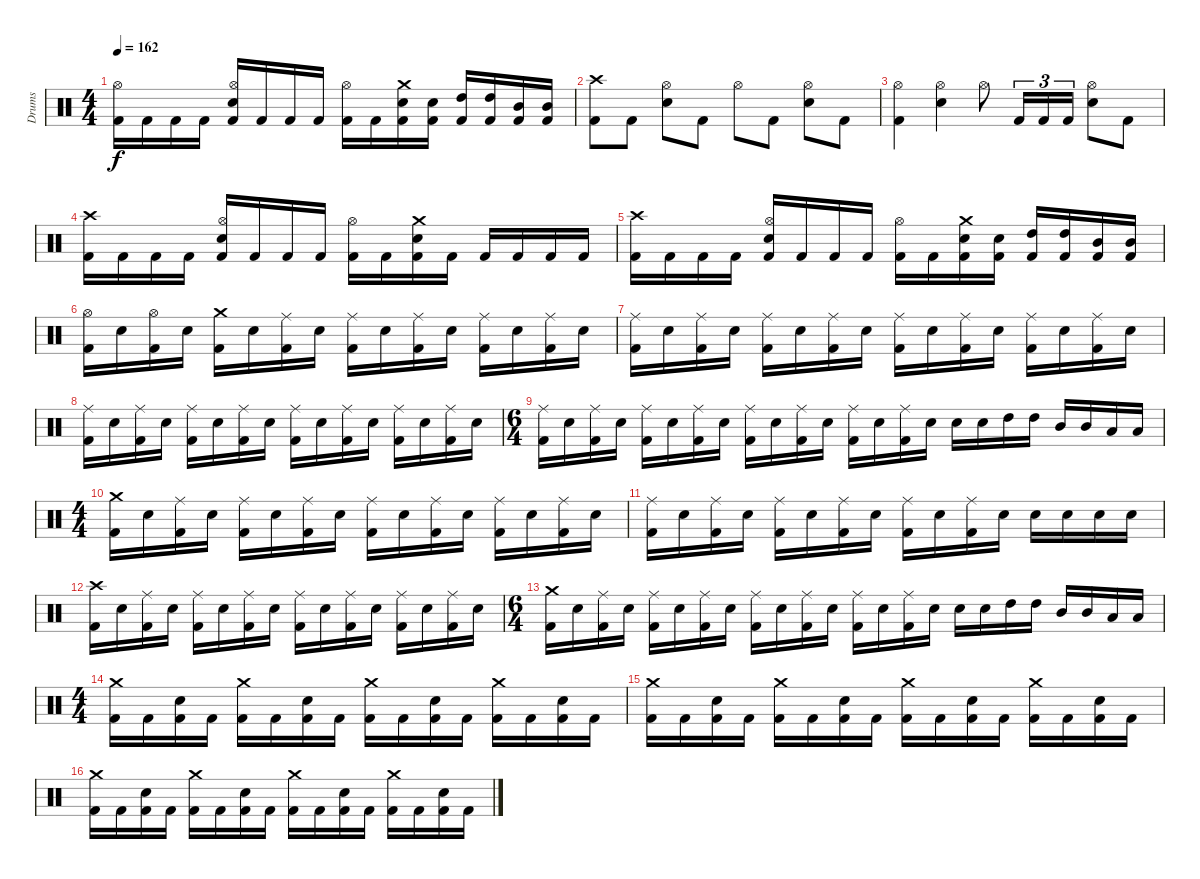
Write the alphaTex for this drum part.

\track ("Drums" "Drums") {instrument percussion}
\staff {score}
\articulation defaults
\ts (4 4)
\tempo 162
\clef neutral
\ks c
("Kick (hit) 2" "Hi-Hat (open)").16{dy f} "Kick (hit) 2".16 "Kick (hit) 2".16 "Kick (hit) 2".16 ("Kick (hit) 2" "Electric Snare (hit)" "Hi-Hat (open)").16 "Kick (hit) 2".16 "Kick (hit) 2".16 "Kick (hit) 2".16 ("Kick (hit) 2" "Hi-Hat (open)").16 "Kick (hit) 2".16 ("Kick (hit) 2" "Electric Snare (hit)" "Crash medium (hit)").16 ("Kick (hit) 2" "Electric Snare (hit)").16 ("Kick (hit) 2" "High Tom (hit)").16 ("Kick (hit) 2" "High Tom (hit)").16 ("Kick (hit) 2" "Mid Tom (hit)").16 ("Kick (hit) 2" "Mid Tom (hit)").16 |
("Kick (hit) 2" "Crash high (hit)").8 "Kick (hit) 2".8 ("Electric Snare (hit)" "Hi-Hat (open)").8 "Kick (hit) 2".8 "Hi-Hat (open)".8 "Kick (hit) 2".8 ("Electric Snare (hit)" "Hi-Hat (open)").8 "Kick (hit) 2".8 |
("Kick (hit) 2" "Hi-Hat (open)").4 ("Electric Snare (hit)" "Hi-Hat (open)").4 "Hi-Hat (open)".8 "Kick (hit) 2".16{tu (3 2)} "Kick (hit) 2".16{tu (3 2)} "Kick (hit) 2".16{tu (3 2)} ("Electric Snare (hit)" "Hi-Hat (open)").8 "Kick (hit) 2".8 |
("Kick (hit) 2" "Crash high (hit)").16 "Kick (hit) 2".16 "Kick (hit) 2".16 "Kick (hit) 2".16 ("Kick (hit) 2" "Electric Snare (hit)" "Hi-Hat (open)").16 "Kick (hit) 2".16 "Kick (hit) 2".16 "Kick (hit) 2".16 ("Kick (hit) 2" "Hi-Hat (open)").16 "Kick (hit) 2".16 ("Kick (hit) 2" "Electric Snare (hit)" "Crash medium (hit)").16 "Kick (hit) 2".16 "Kick (hit) 2".16 "Kick (hit) 2".16 "Kick (hit) 2".16 "Kick (hit) 2".16 |
("Kick (hit) 2" "Crash high (hit)").16 "Kick (hit) 2".16 "Kick (hit) 2".16 "Kick (hit) 2".16 ("Kick (hit) 2" "Electric Snare (hit)" "Hi-Hat (open)").16 "Kick (hit) 2".16 "Kick (hit) 2".16 "Kick (hit) 2".16 ("Kick (hit) 2" "Hi-Hat (open)").16 "Kick (hit) 2".16 ("Kick (hit) 2" "Electric Snare (hit)" "Crash medium (hit)").16 ("Kick (hit) 2" "Electric Snare (hit)").16 ("Kick (hit) 2" "High Tom (hit)").16 ("Kick (hit) 2" "High Tom (hit)").16 ("Kick (hit) 2" "Mid Tom (hit)").16 ("Kick (hit) 2" "Mid Tom (hit)").16 |
("Kick (hit) 2" "Hi-Hat (open)").16 "Electric Snare (hit)".16 ("Kick (hit) 2" "Hi-Hat (open)").16 "Electric Snare (hit)".16 ("Kick (hit) 2" "Crash medium (hit)").16 "Electric Snare (hit)".16 ("Kick (hit) 2" "Ride (middle)").16 "Electric Snare (hit)".16 ("Kick (hit) 2" "Ride (middle)").16 "Electric Snare (hit)".16 ("Kick (hit) 2" "Ride (middle)").16 "Electric Snare (hit)".16 ("Kick (hit) 2" "Ride (middle)").16 "Electric Snare (hit)".16 ("Kick (hit) 2" "Ride (middle)").16 "Electric Snare (hit)".16 |
("Kick (hit) 2" "Ride (middle)").16 "Electric Snare (hit)".16 ("Kick (hit) 2" "Ride (middle)").16 "Electric Snare (hit)".16 ("Kick (hit) 2" "Ride (middle)").16 "Electric Snare (hit)".16 ("Kick (hit) 2" "Ride (middle)").16 "Electric Snare (hit)".16 ("Kick (hit) 2" "Ride (middle)").16 "Electric Snare (hit)".16 ("Kick (hit) 2" "Ride (middle)").16 "Electric Snare (hit)".16 ("Kick (hit) 2" "Ride (middle)").16 "Electric Snare (hit)".16 ("Kick (hit) 2" "Ride (middle)").16 "Electric Snare (hit)".16 |
("Kick (hit) 2" "Ride (middle)").16 "Electric Snare (hit)".16 ("Kick (hit) 2" "Ride (middle)").16 "Electric Snare (hit)".16 ("Kick (hit) 2" "Ride (middle)").16 "Electric Snare (hit)".16 ("Kick (hit) 2" "Ride (middle)").16 "Electric Snare (hit)".16 ("Kick (hit) 2" "Ride (middle)").16 "Electric Snare (hit)".16 ("Kick (hit) 2" "Ride (middle)").16 "Electric Snare (hit)".16 ("Kick (hit) 2" "Ride (middle)").16 "Electric Snare (hit)".16 ("Kick (hit) 2" "Ride (middle)").16 "Electric Snare (hit)".16 |
\ts (6 4)
("Kick (hit) 2" "Ride (middle)").16 "Electric Snare (hit)".16 ("Kick (hit) 2" "Ride (middle)").16 "Electric Snare (hit)".16 ("Kick (hit) 2" "Ride (middle)").16 "Electric Snare (hit)".16 ("Kick (hit) 2" "Ride (middle)").16 "Electric Snare (hit)".16 ("Kick (hit) 2" "Ride (middle)").16 "Electric Snare (hit)".16 ("Kick (hit) 2" "Ride (middle)").16 "Electric Snare (hit)".16 ("Kick (hit) 2" "Ride (middle)").16 "Electric Snare (hit)".16 ("Kick (hit) 2" "Ride (middle)").16 "Electric Snare (hit)".16 "Electric Snare (hit)".16 "Electric Snare (hit)".16 "High Tom (hit)".16 "High Tom (hit)".16 "Mid Tom (hit)".16 "Mid Tom (hit)".16 "Low Tom (hit)".16 "Low Tom (hit)".16 |
\ts (4 4)
("Kick (hit) 2" "Crash medium (hit)").16 "Electric Snare (hit)".16 ("Kick (hit) 2" "Ride (middle)").16 "Electric Snare (hit)".16 ("Kick (hit) 2" "Ride (middle)").16 "Electric Snare (hit)".16 ("Kick (hit) 2" "Ride (middle)").16 "Electric Snare (hit)".16 ("Kick (hit) 2" "Ride (middle)").16 "Electric Snare (hit)".16 ("Kick (hit) 2" "Ride (middle)").16 "Electric Snare (hit)".16 ("Kick (hit) 2" "Ride (middle)").16 "Electric Snare (hit)".16 ("Kick (hit) 2" "Ride (middle)").16 "Electric Snare (hit)".16 |
("Kick (hit) 2" "Ride (middle)").16 "Electric Snare (hit)".16 ("Kick (hit) 2" "Ride (middle)").16 "Electric Snare (hit)".16 ("Kick (hit) 2" "Ride (middle)").16 "Electric Snare (hit)".16 ("Kick (hit) 2" "Ride (middle)").16 "Electric Snare (hit)".16 ("Kick (hit) 2" "Ride (middle)").16 "Electric Snare (hit)".16 ("Kick (hit) 2" "Ride (middle)").16 "Electric Snare (hit)".16 "Electric Snare (hit)".16 "Electric Snare (hit)".16 "Electric Snare (hit)".16 "Electric Snare (hit)".16 |
("Kick (hit) 2" "Crash high (hit)").16 "Electric Snare (hit)".16 ("Kick (hit) 2" "Ride (middle)").16 "Electric Snare (hit)".16 ("Kick (hit) 2" "Ride (middle)").16 "Electric Snare (hit)".16 ("Kick (hit) 2" "Ride (middle)").16 "Electric Snare (hit)".16 ("Kick (hit) 2" "Ride (middle)").16 "Electric Snare (hit)".16 ("Kick (hit) 2" "Ride (middle)").16 "Electric Snare (hit)".16 ("Kick (hit) 2" "Ride (middle)").16 "Electric Snare (hit)".16 ("Kick (hit) 2" "Ride (middle)").16 "Electric Snare (hit)".16 |
\ts (6 4)
("Kick (hit) 2" "Crash medium (hit)").16 "Electric Snare (hit)".16 ("Kick (hit) 2" "Ride (middle)").16 "Electric Snare (hit)".16 ("Kick (hit) 2" "Ride (middle)").16 "Electric Snare (hit)".16 ("Kick (hit) 2" "Ride (middle)").16 "Electric Snare (hit)".16 ("Kick (hit) 2" "Ride (middle)").16 "Electric Snare (hit)".16 ("Kick (hit) 2" "Ride (middle)").16 "Electric Snare (hit)".16 ("Kick (hit) 2" "Ride (middle)").16 "Electric Snare (hit)".16 ("Kick (hit) 2" "Ride (middle)").16 "Electric Snare (hit)".16 "Electric Snare (hit)".16 "Electric Snare (hit)".16 "High Tom (hit)".16 "High Tom (hit)".16 "Mid Tom (hit)".16 "Mid Tom (hit)".16 "Low Tom (hit)".16 "Low Tom (hit)".16 |
\ts (4 4)
("Kick (hit) 2" "Crash medium (hit)").16 "Kick (hit) 2".16 ("Kick (hit) 2" "Electric Snare (hit)").16 "Kick (hit) 2".16 ("Kick (hit) 2" "Crash medium (hit)").16 "Kick (hit) 2".16 ("Kick (hit) 2" "Electric Snare (hit)").16 "Kick (hit) 2".16 ("Kick (hit) 2" "Crash medium (hit)").16 "Kick (hit) 2".16 ("Kick (hit) 2" "Electric Snare (hit)").16 "Kick (hit) 2".16 ("Kick (hit) 2" "Crash medium (hit)").16 "Kick (hit) 2".16 ("Kick (hit) 2" "Electric Snare (hit)").16 "Kick (hit) 2".16 |
("Kick (hit) 2" "Crash medium (hit)").16 "Kick (hit) 2".16 ("Kick (hit) 2" "Electric Snare (hit)").16 "Kick (hit) 2".16 ("Kick (hit) 2" "Crash medium (hit)").16 "Kick (hit) 2".16 ("Kick (hit) 2" "Electric Snare (hit)").16 "Kick (hit) 2".16 ("Kick (hit) 2" "Crash medium (hit)").16 "Kick (hit) 2".16 ("Kick (hit) 2" "Electric Snare (hit)").16 "Kick (hit) 2".16 ("Kick (hit) 2" "Crash medium (hit)").16 "Kick (hit) 2".16 ("Kick (hit) 2" "Electric Snare (hit)").16 "Kick (hit) 2".16 |
("Kick (hit) 2" "Crash medium (hit)").16 "Kick (hit) 2".16 ("Kick (hit) 2" "Electric Snare (hit)").16 "Kick (hit) 2".16 ("Kick (hit) 2" "Crash medium (hit)").16 "Kick (hit) 2".16 ("Kick (hit) 2" "Electric Snare (hit)").16 "Kick (hit) 2".16 ("Kick (hit) 2" "Crash medium (hit)").16 "Kick (hit) 2".16 ("Kick (hit) 2" "Electric Snare (hit)").16 "Kick (hit) 2".16 ("Kick (hit) 2" "Crash medium (hit)").16 "Kick (hit) 2".16 ("Kick (hit) 2" "Electric Snare (hit)").16 "Kick (hit) 2".16
